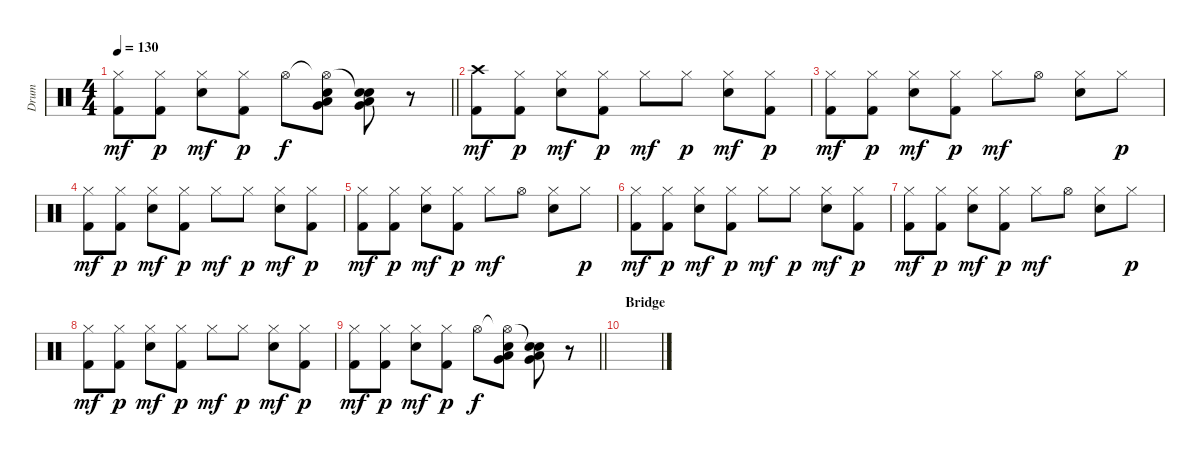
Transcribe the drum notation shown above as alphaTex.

\track ("Drum" "Drum") {instrument percussion}
\staff {score}
\articulation defaults
\ts (4 4)
\tempo 130
\clef neutral
\barLineRight lightlight
\ks c
("Hi-Hat (closed)" "Kick (hit) 2").8{dy mf} ("Hi-Hat (closed)" "Kick (hit) 2").8{dy p} ("Hi-Hat (closed)" "Electric Snare (hit)").8{dy mf} ("Hi-Hat (closed)" "Kick (hit) 2").8{dy p} "Hi-Hat (open)".8{dy f} ("Hi-Hat (open)"{t} "Electric Snare (hit)" "Very Low Tom (hit)" "Low Floor Tom (hit)").8 ("Snare (hit)"{t} "Electric Snare (hit)" "Very Low Tom (hit)" "Low Floor Tom (hit)").8 r.8 |
\section ("" "")
("Crash high (hit)" "Kick (hit) 2").8{dy mf} ("Hi-Hat (closed)" "Kick (hit) 2").8{dy p} ("Hi-Hat (closed)" "Electric Snare (hit)").8{dy mf} ("Hi-Hat (closed)" "Kick (hit) 2").8{dy p} "Hi-Hat (closed)".8{dy mf} "Hi-Hat (closed)".8{dy p} ("Hi-Hat (closed)" "Electric Snare (hit)").8{dy mf} ("Hi-Hat (closed)" "Kick (hit) 2").8{dy p} |
("Hi-Hat (closed)" "Kick (hit) 2").8{dy mf} ("Hi-Hat (closed)" "Kick (hit) 2").8{dy p} ("Hi-Hat (closed)" "Electric Snare (hit)").8{dy mf} ("Hi-Hat (closed)" "Kick (hit) 2").8{dy p} "Hi-Hat (closed)".8{dy mf} "Hi-Hat (open)".8 ("Hi-Hat (closed)" "Electric Snare (hit)").8 "Hi-Hat (closed)".8{dy p} |
("Hi-Hat (closed)" "Kick (hit) 2").8{dy mf} ("Hi-Hat (closed)" "Kick (hit) 2").8{dy p} ("Hi-Hat (closed)" "Electric Snare (hit)").8{dy mf} ("Hi-Hat (closed)" "Kick (hit) 2").8{dy p} "Hi-Hat (closed)".8{dy mf} "Hi-Hat (closed)".8{dy p} ("Hi-Hat (closed)" "Electric Snare (hit)").8{dy mf} ("Hi-Hat (closed)" "Kick (hit) 2").8{dy p} |
("Hi-Hat (closed)" "Kick (hit) 2").8{dy mf} ("Hi-Hat (closed)" "Kick (hit) 2").8{dy p} ("Hi-Hat (closed)" "Electric Snare (hit)").8{dy mf} ("Hi-Hat (closed)" "Kick (hit) 2").8{dy p} "Hi-Hat (closed)".8{dy mf} "Hi-Hat (open)".8 ("Hi-Hat (closed)" "Electric Snare (hit)").8 "Hi-Hat (closed)".8{dy p} |
("Hi-Hat (closed)" "Kick (hit) 2").8{dy mf} ("Hi-Hat (closed)" "Kick (hit) 2").8{dy p} ("Hi-Hat (closed)" "Electric Snare (hit)").8{dy mf} ("Hi-Hat (closed)" "Kick (hit) 2").8{dy p} "Hi-Hat (closed)".8{dy mf} "Hi-Hat (closed)".8{dy p} ("Hi-Hat (closed)" "Electric Snare (hit)").8{dy mf} ("Hi-Hat (closed)" "Kick (hit) 2").8{dy p} |
("Hi-Hat (closed)" "Kick (hit) 2").8{dy mf} ("Hi-Hat (closed)" "Kick (hit) 2").8{dy p} ("Hi-Hat (closed)" "Electric Snare (hit)").8{dy mf} ("Hi-Hat (closed)" "Kick (hit) 2").8{dy p} "Hi-Hat (closed)".8{dy mf} "Hi-Hat (open)".8 ("Hi-Hat (closed)" "Electric Snare (hit)").8 "Hi-Hat (closed)".8{dy p} |
("Hi-Hat (closed)" "Kick (hit) 2").8{dy mf} ("Hi-Hat (closed)" "Kick (hit) 2").8{dy p} ("Hi-Hat (closed)" "Electric Snare (hit)").8{dy mf} ("Hi-Hat (closed)" "Kick (hit) 2").8{dy p} "Hi-Hat (closed)".8{dy mf} "Hi-Hat (closed)".8{dy p} ("Hi-Hat (closed)" "Electric Snare (hit)").8{dy mf} ("Hi-Hat (closed)" "Kick (hit) 2").8{dy p} |
\barLineRight lightlight
("Hi-Hat (closed)" "Kick (hit) 2").8{dy mf} ("Hi-Hat (closed)" "Kick (hit) 2").8{dy p} ("Hi-Hat (closed)" "Electric Snare (hit)").8{dy mf} ("Hi-Hat (closed)" "Kick (hit) 2").8{dy p} "Hi-Hat (open)".8{dy f} ("Hi-Hat (open)"{t} "Electric Snare (hit)" "Very Low Tom (hit)" "Low Floor Tom (hit)").8 ("Snare (hit)"{t} "Electric Snare (hit)" "Very Low Tom (hit)" "Low Floor Tom (hit)").8 r.8 |
\section ("" "Bridge")
